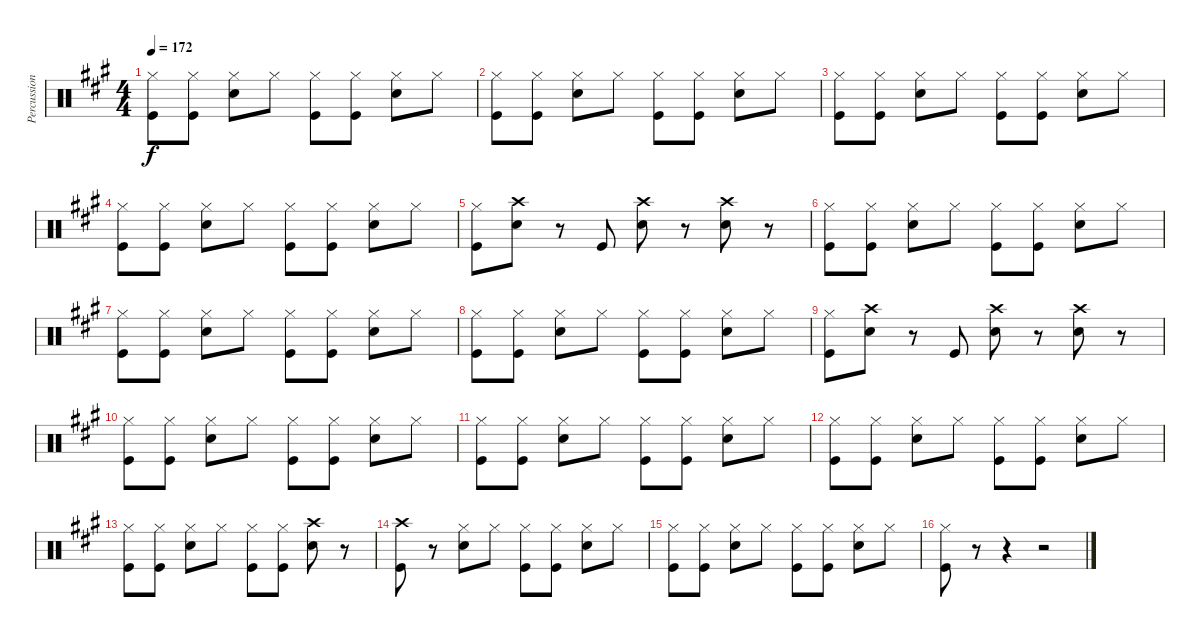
\track ("Percussion" "Percussion") {instrument percussion}
\staff {score}
\articulation defaults
\ts (4 4)
\tempo 172
\clef neutral
\ks a
("Hi-Hat (closed)" "Kick (hit)").8{dy f} ("Hi-Hat (closed)" "Kick (hit)").8 ("Hi-Hat (closed)" "Snare (hit) 2").8 "Hi-Hat (closed)".8 ("Hi-Hat (closed)" "Kick (hit)").8 ("Hi-Hat (closed)" "Kick (hit)").8 ("Hi-Hat (closed)" "Snare (hit) 2").8 "Hi-Hat (closed)".8 |
("Hi-Hat (closed)" "Kick (hit)").8 ("Hi-Hat (closed)" "Kick (hit)").8 ("Hi-Hat (closed)" "Snare (hit) 2").8 "Hi-Hat (closed)".8 ("Hi-Hat (closed)" "Kick (hit)").8 ("Hi-Hat (closed)" "Kick (hit)").8 ("Hi-Hat (closed)" "Snare (hit) 2").8 "Hi-Hat (closed)".8 |
("Hi-Hat (closed)" "Kick (hit)").8 ("Hi-Hat (closed)" "Kick (hit)").8 ("Hi-Hat (closed)" "Snare (hit) 2").8 "Hi-Hat (closed)".8 ("Hi-Hat (closed)" "Kick (hit)").8 ("Hi-Hat (closed)" "Kick (hit)").8 ("Hi-Hat (closed)" "Snare (hit) 2").8 "Hi-Hat (closed)".8 |
("Hi-Hat (closed)" "Kick (hit)").8 ("Hi-Hat (closed)" "Kick (hit)").8 ("Hi-Hat (closed)" "Snare (hit) 2").8 "Hi-Hat (closed)".8 ("Hi-Hat (closed)" "Kick (hit)").8 ("Hi-Hat (closed)" "Kick (hit)").8 ("Hi-Hat (closed)" "Snare (hit) 2").8 "Hi-Hat (closed)".8 |
("Hi-Hat (closed)" "Kick (hit)").8 ("Crash high (hit)" "Snare (hit) 2").8 r.8 "Kick (hit)".8 ("Crash high (hit)" "Snare (hit) 2").8 r.8 ("Crash high (hit)" "Snare (hit) 2").8 r.8 |
("Hi-Hat (closed)" "Kick (hit)").8 ("Hi-Hat (closed)" "Kick (hit)").8 ("Hi-Hat (closed)" "Snare (hit) 2").8 "Hi-Hat (closed)".8 ("Hi-Hat (closed)" "Kick (hit)").8 ("Hi-Hat (closed)" "Kick (hit)").8 ("Hi-Hat (closed)" "Snare (hit) 2").8 "Hi-Hat (closed)".8 |
("Hi-Hat (closed)" "Kick (hit)").8 ("Hi-Hat (closed)" "Kick (hit)").8 ("Hi-Hat (closed)" "Snare (hit) 2").8 "Hi-Hat (closed)".8 ("Hi-Hat (closed)" "Kick (hit)").8 ("Hi-Hat (closed)" "Kick (hit)").8 ("Hi-Hat (closed)" "Snare (hit) 2").8 "Hi-Hat (closed)".8 |
("Hi-Hat (closed)" "Kick (hit)").8 ("Hi-Hat (closed)" "Kick (hit)").8 ("Hi-Hat (closed)" "Snare (hit) 2").8 "Hi-Hat (closed)".8 ("Hi-Hat (closed)" "Kick (hit)").8 ("Hi-Hat (closed)" "Kick (hit)").8 ("Hi-Hat (closed)" "Snare (hit) 2").8 "Hi-Hat (closed)".8 |
("Hi-Hat (closed)" "Kick (hit)").8 ("Crash high (hit)" "Snare (hit) 2").8 r.8 "Kick (hit)".8 ("Crash high (hit)" "Snare (hit) 2").8 r.8 ("Crash high (hit)" "Snare (hit) 2").8 r.8 |
("Hi-Hat (closed)" "Kick (hit)").8 ("Hi-Hat (closed)" "Kick (hit)").8 ("Hi-Hat (closed)" "Snare (hit) 2").8 "Hi-Hat (closed)".8 ("Hi-Hat (closed)" "Kick (hit)").8 ("Hi-Hat (closed)" "Kick (hit)").8 ("Hi-Hat (closed)" "Snare (hit) 2").8 "Hi-Hat (closed)".8 |
("Hi-Hat (closed)" "Kick (hit)").8 ("Hi-Hat (closed)" "Kick (hit)").8 ("Hi-Hat (closed)" "Snare (hit) 2").8 "Hi-Hat (closed)".8 ("Hi-Hat (closed)" "Kick (hit)").8 ("Hi-Hat (closed)" "Kick (hit)").8 ("Hi-Hat (closed)" "Snare (hit) 2").8 "Hi-Hat (closed)".8 |
("Hi-Hat (closed)" "Kick (hit)").8 ("Hi-Hat (closed)" "Kick (hit)").8 ("Hi-Hat (closed)" "Snare (hit) 2").8 "Hi-Hat (closed)".8 ("Hi-Hat (closed)" "Kick (hit)").8 ("Hi-Hat (closed)" "Kick (hit)").8 ("Hi-Hat (closed)" "Snare (hit) 2").8 "Hi-Hat (closed)".8 |
("Hi-Hat (closed)" "Kick (hit)").8 ("Hi-Hat (closed)" "Kick (hit)").8 ("Hi-Hat (closed)" "Snare (hit) 2").8 "Hi-Hat (closed)".8 ("Hi-Hat (closed)" "Kick (hit)").8 ("Hi-Hat (closed)" "Kick (hit)").8 ("Crash high (hit)" "Snare (hit) 2").8 r.8 |
("Crash high (hit)" "Kick (hit)").8 r.8 ("Hi-Hat (closed)" "Snare (hit) 2").8 "Hi-Hat (closed)".8 ("Hi-Hat (closed)" "Kick (hit)").8 ("Hi-Hat (closed)" "Kick (hit)").8 ("Hi-Hat (closed)" "Snare (hit) 2").8 "Hi-Hat (closed)".8 |
("Hi-Hat (closed)" "Kick (hit)").8 ("Hi-Hat (closed)" "Kick (hit)").8 ("Hi-Hat (closed)" "Snare (hit) 2").8 "Hi-Hat (closed)".8 ("Hi-Hat (closed)" "Kick (hit)").8 ("Hi-Hat (closed)" "Kick (hit)").8 ("Hi-Hat (closed)" "Snare (hit) 2").8 "Hi-Hat (closed)".8 |
("Hi-Hat (closed)" "Kick (hit)").8 r.8 r.4 r.2
